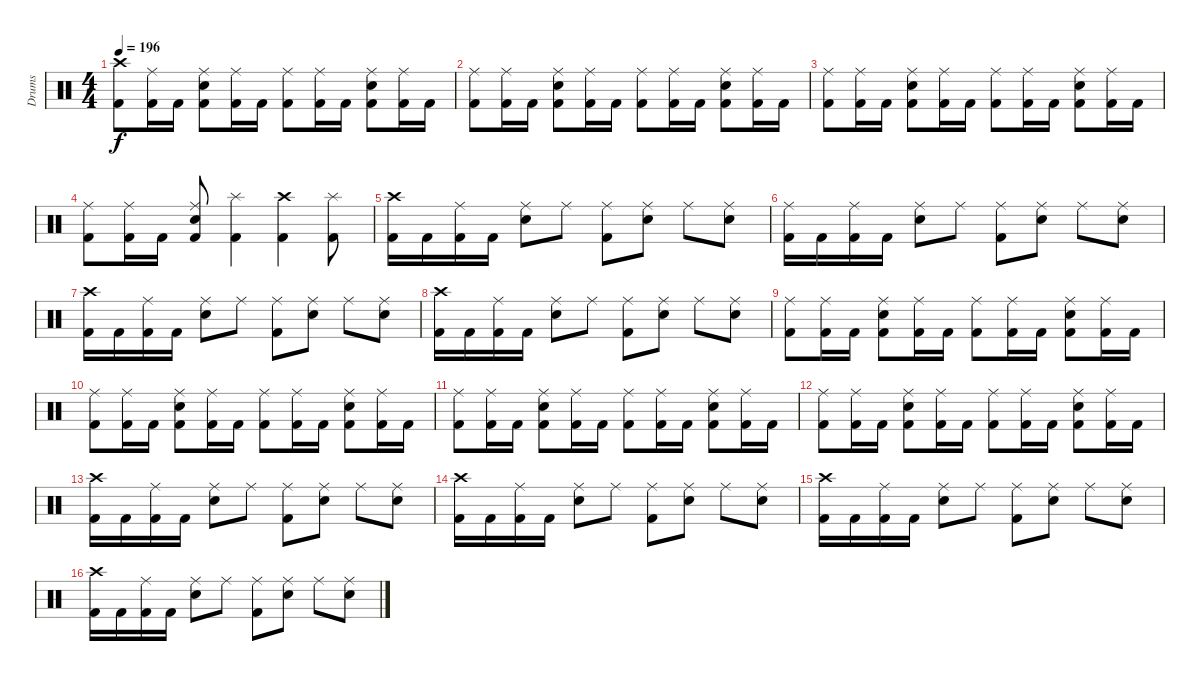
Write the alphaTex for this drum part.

\track ("Drums" "Drums") {instrument percussion}
\staff {score}
\articulation defaults
\ts (4 4)
\tempo 196
\clef neutral
\ks c
("Kick (hit) 2" "Crash high (hit)").8{dy f} ("Kick (hit) 2" "Ride (middle)").16 "Kick (hit) 2".16 ("Kick (hit) 2" "Snare (hit) 2" "Ride (middle)").8 ("Kick (hit) 2" "Ride (middle)").16 "Kick (hit) 2".16 ("Kick (hit) 2" "Ride (middle)").8 ("Kick (hit) 2" "Ride (middle)").16 "Kick (hit) 2".16 ("Kick (hit) 2" "Snare (hit) 2" "Ride (middle)").8 ("Kick (hit) 2" "Ride (middle)").16 "Kick (hit) 2".16 |
("Kick (hit) 2" "Ride (middle)").8 ("Kick (hit) 2" "Ride (middle)").16 "Kick (hit) 2".16 ("Kick (hit) 2" "Snare (hit) 2" "Ride (middle)").8 ("Kick (hit) 2" "Ride (middle)").16 "Kick (hit) 2".16 ("Kick (hit) 2" "Ride (middle)").8 ("Kick (hit) 2" "Ride (middle)").16 "Kick (hit) 2".16 ("Kick (hit) 2" "Snare (hit) 2" "Ride (middle)").8 ("Kick (hit) 2" "Ride (middle)").16 "Kick (hit) 2".16 |
("Kick (hit) 2" "Ride (middle)").8 ("Kick (hit) 2" "Ride (middle)").16 "Kick (hit) 2".16 ("Kick (hit) 2" "Snare (hit) 2" "Ride (middle)").8 ("Kick (hit) 2" "Ride (middle)").16 "Kick (hit) 2".16 ("Kick (hit) 2" "Ride (middle)").8 ("Kick (hit) 2" "Ride (middle)").16 "Kick (hit) 2".16 ("Kick (hit) 2" "Snare (hit) 2" "Ride (middle)").8 ("Kick (hit) 2" "Ride (middle)").16 "Kick (hit) 2".16 |
("Kick (hit) 2" "Ride (middle)").8 ("Kick (hit) 2" "Ride (middle)").16 "Kick (hit) 2".16 ("Kick (hit) 2" "Snare (hit) 2" "Ride (middle)").8 ("Kick (hit) 2" "Splash (hit)").4 ("Kick (hit) 2" "Crash high (hit)").4 ("Kick (hit) 2" "Splash (hit)").8 |
("Kick (hit) 2" "Crash high (hit)").16 "Kick (hit) 2".16 ("Kick (hit) 2" "Ride (middle)").16 "Kick (hit) 2".16 ("Snare (hit) 2" "Ride (middle)").8 "Ride (middle)".8 ("Kick (hit) 2" "Ride (middle)").8 ("Snare (hit) 2" "Ride (middle)").8 "Ride (middle)".8 ("Snare (hit) 2" "Ride (middle)").8 |
("Kick (hit) 2" "Ride (middle)").16 "Kick (hit) 2".16 ("Kick (hit) 2" "Ride (middle)").16 "Kick (hit) 2".16 ("Snare (hit) 2" "Ride (middle)").8 "Ride (middle)".8 ("Kick (hit) 2" "Ride (middle)").8 ("Snare (hit) 2" "Ride (middle)").8 "Ride (middle)".8 ("Snare (hit) 2" "Ride (middle)").8 |
("Kick (hit) 2" "Crash high (hit)").16 "Kick (hit) 2".16 ("Kick (hit) 2" "Ride (middle)").16 "Kick (hit) 2".16 ("Snare (hit) 2" "Ride (middle)").8 "Ride (middle)".8 ("Kick (hit) 2" "Ride (middle)").8 ("Snare (hit) 2" "Ride (middle)").8 "Ride (middle)".8 ("Snare (hit) 2" "Ride (middle)").8 |
("Kick (hit) 2" "Crash high (hit)").16 "Kick (hit) 2".16 ("Kick (hit) 2" "Ride (middle)").16 "Kick (hit) 2".16 ("Snare (hit) 2" "Ride (middle)").8 "Ride (middle)".8 ("Kick (hit) 2" "Ride (middle)").8 ("Snare (hit) 2" "Ride (middle)").8 "Ride (middle)".8 ("Snare (hit) 2" "Ride (middle)").8 |
("Kick (hit) 2" "Ride (middle)").8 ("Kick (hit) 2" "Ride (middle)").16 "Kick (hit) 2".16 ("Kick (hit) 2" "Snare (hit) 2" "Ride (middle)").8 ("Kick (hit) 2" "Ride (middle)").16 "Kick (hit) 2".16 ("Kick (hit) 2" "Ride (middle)").8 ("Kick (hit) 2" "Ride (middle)").16 "Kick (hit) 2".16 ("Kick (hit) 2" "Snare (hit) 2" "Ride (middle)").8 ("Kick (hit) 2" "Ride (middle)").16 "Kick (hit) 2".16 |
("Kick (hit) 2" "Ride (middle)").8 ("Kick (hit) 2" "Ride (middle)").16 "Kick (hit) 2".16 ("Kick (hit) 2" "Snare (hit) 2" "Ride (middle)").8 ("Kick (hit) 2" "Ride (middle)").16 "Kick (hit) 2".16 ("Kick (hit) 2" "Ride (middle)").8 ("Kick (hit) 2" "Ride (middle)").16 "Kick (hit) 2".16 ("Kick (hit) 2" "Snare (hit) 2" "Ride (middle)").8 ("Kick (hit) 2" "Ride (middle)").16 "Kick (hit) 2".16 |
("Kick (hit) 2" "Ride (middle)").8 ("Kick (hit) 2" "Ride (middle)").16 "Kick (hit) 2".16 ("Kick (hit) 2" "Snare (hit) 2" "Ride (middle)").8 ("Kick (hit) 2" "Ride (middle)").16 "Kick (hit) 2".16 ("Kick (hit) 2" "Ride (middle)").8 ("Kick (hit) 2" "Ride (middle)").16 "Kick (hit) 2".16 ("Kick (hit) 2" "Snare (hit) 2" "Ride (middle)").8 ("Kick (hit) 2" "Ride (middle)").16 "Kick (hit) 2".16 |
("Kick (hit) 2" "Ride (middle)").8 ("Kick (hit) 2" "Ride (middle)").16 "Kick (hit) 2".16 ("Kick (hit) 2" "Snare (hit) 2" "Ride (middle)").8 ("Kick (hit) 2" "Ride (middle)").16 "Kick (hit) 2".16 ("Kick (hit) 2" "Ride (middle)").8 ("Kick (hit) 2" "Ride (middle)").16 "Kick (hit) 2".16 ("Kick (hit) 2" "Snare (hit) 2" "Ride (middle)").8 ("Kick (hit) 2" "Ride (middle)").16 "Kick (hit) 2".16 |
("Kick (hit) 2" "Crash high (hit)").16 "Kick (hit) 2".16 ("Kick (hit) 2" "Ride (middle)").16 "Kick (hit) 2".16 ("Snare (hit) 2" "Ride (middle)").8 "Ride (middle)".8 ("Kick (hit) 2" "Ride (middle)").8 ("Snare (hit) 2" "Ride (middle)").8 "Ride (middle)".8 ("Snare (hit) 2" "Ride (middle)").8 |
("Kick (hit) 2" "Crash high (hit)").16 "Kick (hit) 2".16 ("Kick (hit) 2" "Ride (middle)").16 "Kick (hit) 2".16 ("Snare (hit) 2" "Ride (middle)").8 "Ride (middle)".8 ("Kick (hit) 2" "Ride (middle)").8 ("Snare (hit) 2" "Ride (middle)").8 "Ride (middle)".8 ("Snare (hit) 2" "Ride (middle)").8 |
("Kick (hit) 2" "Crash high (hit)").16 "Kick (hit) 2".16 ("Kick (hit) 2" "Ride (middle)").16 "Kick (hit) 2".16 ("Snare (hit) 2" "Ride (middle)").8 "Ride (middle)".8 ("Kick (hit) 2" "Ride (middle)").8 ("Snare (hit) 2" "Ride (middle)").8 "Ride (middle)".8 ("Snare (hit) 2" "Ride (middle)").8 |
("Kick (hit) 2" "Crash high (hit)").16 "Kick (hit) 2".16 ("Kick (hit) 2" "Ride (middle)").16 "Kick (hit) 2".16 ("Snare (hit) 2" "Ride (middle)").8 "Ride (middle)".8 ("Kick (hit) 2" "Ride (middle)").8 ("Snare (hit) 2" "Ride (middle)").8 "Ride (middle)".8 ("Snare (hit) 2" "Ride (middle)").8
